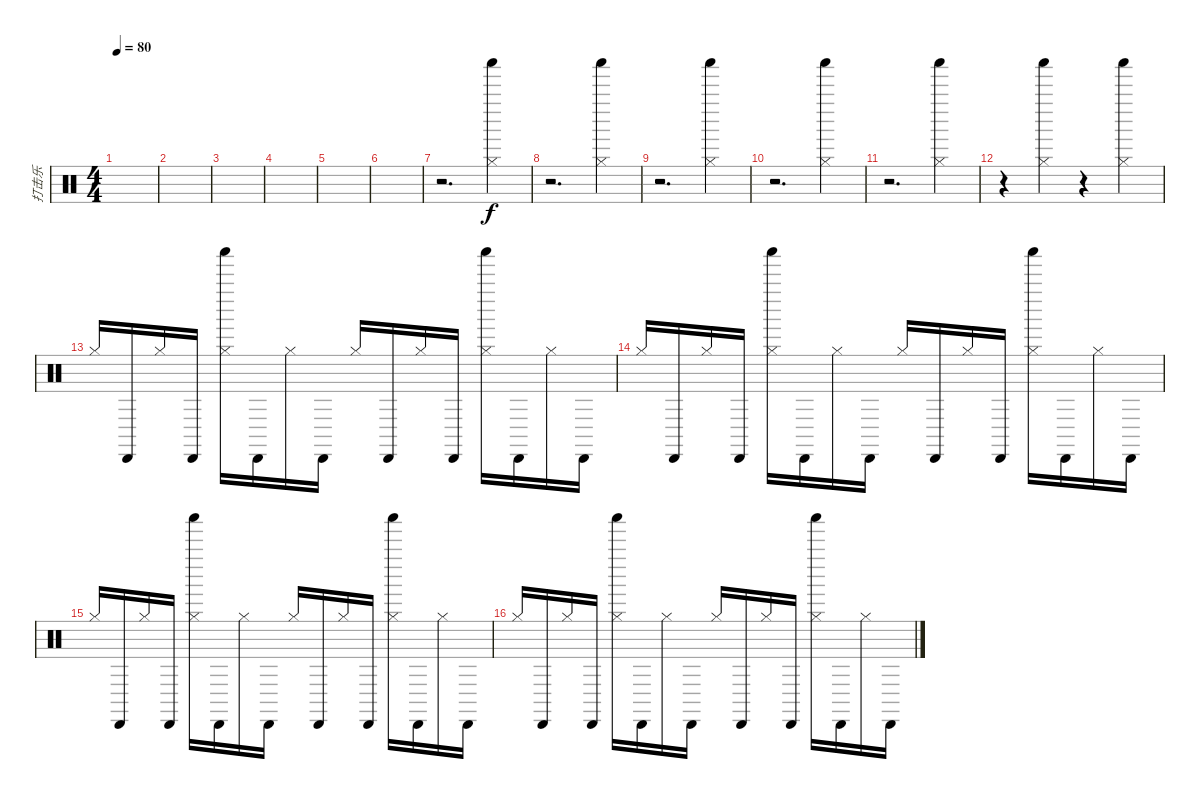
\track ("打击乐" "打击乐") {instrument percussion}
\staff {score}
\articulation defaults
\ts (4 4)
\tempo 80
\clef neutral
\ks c
|
|
|
|
|
|
r.2{d} ("Shaker (hit)" "Hi-Hat (closed)").4 |
r.2{d} ("Shaker (hit)" "Hi-Hat (closed)").4 |
r.2{d} ("Shaker (hit)" "Hi-Hat (closed)").4 |
r.2{d} ("Shaker (hit)" "Hi-Hat (closed)").4 |
r.2{d} ("Shaker (hit)" "Hi-Hat (closed)").4 |
r.4 ("Shaker (hit)" "Hi-Hat (closed)").4 r.4 ("Shaker (hit)" "Hi-Hat (closed)").4 |
"Hi-Hat (closed)".16{volume 10} "Cabasa (hit)".16 "Hi-Hat (closed)".16 "Cabasa (hit)".16 ("Shaker (hit)" "Hi-Hat (closed)").16{volume 16} "Cabasa (hit)".16{volume 11} "Hi-Hat (closed)".16 "Cabasa (hit)".16 "Hi-Hat (closed)".16 "Cabasa (hit)".16 "Hi-Hat (closed)".16 "Cabasa (hit)".16 ("Shaker (hit)" "Hi-Hat (closed)").16{volume 16} "Cabasa (hit)".16{volume 11} "Hi-Hat (closed)".16 "Cabasa (hit)".16 |
"Hi-Hat (closed)".16{volume 10} "Cabasa (hit)".16 "Hi-Hat (closed)".16 "Cabasa (hit)".16 ("Shaker (hit)" "Hi-Hat (closed)").16{volume 16} "Cabasa (hit)".16{volume 11} "Hi-Hat (closed)".16 "Cabasa (hit)".16 "Hi-Hat (closed)".16 "Cabasa (hit)".16 "Hi-Hat (closed)".16 "Cabasa (hit)".16 ("Shaker (hit)" "Hi-Hat (closed)").16{volume 16} "Cabasa (hit)".16{volume 11} "Hi-Hat (closed)".16 "Cabasa (hit)".16 |
"Hi-Hat (closed)".16{volume 10} "Cabasa (hit)".16 "Hi-Hat (closed)".16 "Cabasa (hit)".16 ("Shaker (hit)" "Hi-Hat (closed)").16{volume 16} "Cabasa (hit)".16{volume 11} "Hi-Hat (closed)".16 "Cabasa (hit)".16 "Hi-Hat (closed)".16 "Cabasa (hit)".16 "Hi-Hat (closed)".16 "Cabasa (hit)".16 ("Shaker (hit)" "Hi-Hat (closed)").16{volume 16} "Cabasa (hit)".16{volume 11} "Hi-Hat (closed)".16 "Cabasa (hit)".16 |
"Hi-Hat (closed)".16{volume 10} "Cabasa (hit)".16 "Hi-Hat (closed)".16 "Cabasa (hit)".16 ("Shaker (hit)" "Hi-Hat (closed)").16{volume 16} "Cabasa (hit)".16{volume 11} "Hi-Hat (closed)".16 "Cabasa (hit)".16 "Hi-Hat (closed)".16 "Cabasa (hit)".16 "Hi-Hat (closed)".16 "Cabasa (hit)".16 ("Shaker (hit)" "Hi-Hat (closed)").16{volume 16} "Cabasa (hit)".16{volume 11} "Hi-Hat (closed)".16 "Cabasa (hit)".16
